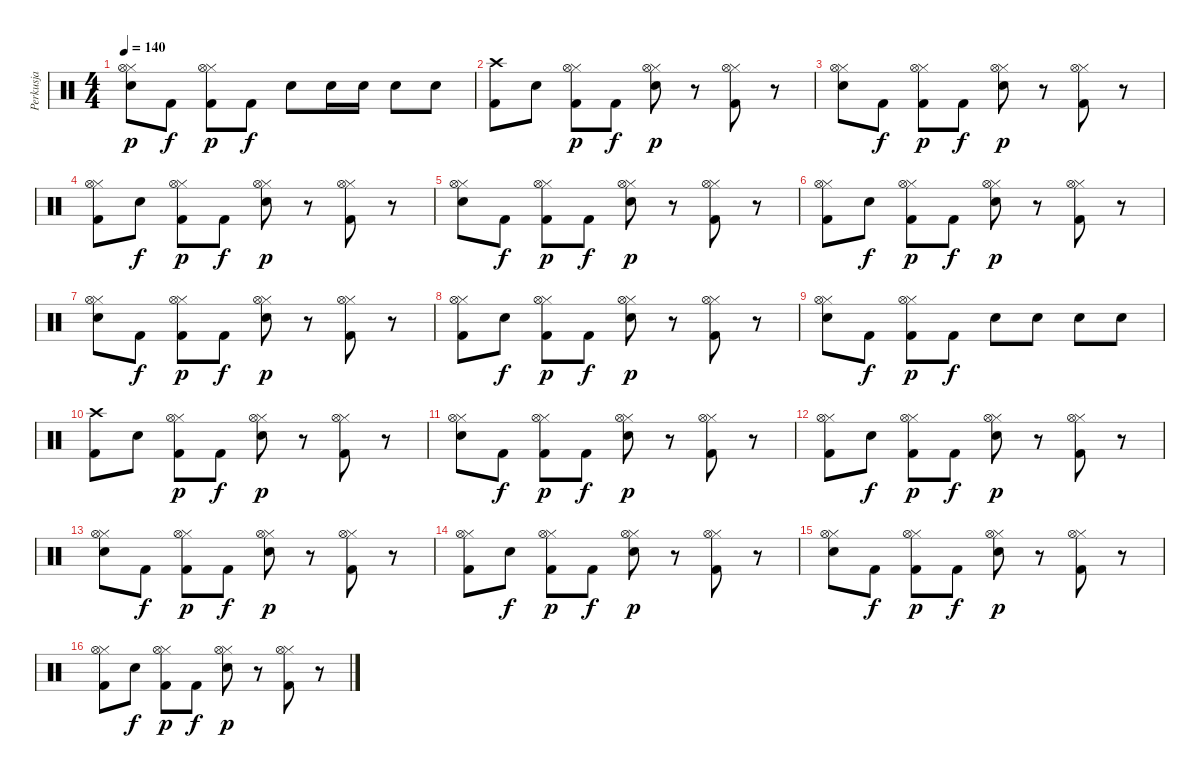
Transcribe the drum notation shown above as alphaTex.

\track ("Perkusja" "Perkusja") {instrument percussion}
\staff {score}
\articulation defaults
\ts (4 4)
\tempo 140
\clef neutral
\ks c
("Electric Snare (hit)" "Hi-Hat (closed)" "Hi-Hat (open)").8{dy p} "Kick (hit) 2".8{dy f} ("Kick (hit) 2" "Hi-Hat (closed)" "Hi-Hat (open)").8{dy p} "Kick (hit) 2".8{dy f} "Electric Snare (hit)".8 "Electric Snare (hit)".16 "Electric Snare (hit)".16 "Electric Snare (hit)".8 "Electric Snare (hit)".8 |
("Kick (hit) 2" "Crash high (hit)").8 "Electric Snare (hit)".8 ("Kick (hit) 2" "Hi-Hat (closed)" "Hi-Hat (open)").8{dy p} "Kick (hit) 2".8{dy f} ("Electric Snare (hit)" "Hi-Hat (closed)" "Hi-Hat (open)").8{dy p} r.8 ("Kick (hit) 2" "Hi-Hat (closed)" "Hi-Hat (open)").8 r.8 |
("Electric Snare (hit)" "Hi-Hat (closed)" "Hi-Hat (open)").8 "Kick (hit) 2".8{dy f} ("Kick (hit) 2" "Hi-Hat (closed)" "Hi-Hat (open)").8{dy p} "Kick (hit) 2".8{dy f} ("Electric Snare (hit)" "Hi-Hat (closed)" "Hi-Hat (open)").8{dy p} r.8 ("Kick (hit) 2" "Hi-Hat (closed)" "Hi-Hat (open)").8 r.8 |
("Kick (hit) 2" "Hi-Hat (closed)" "Hi-Hat (open)").8 "Electric Snare (hit)".8{dy f} ("Kick (hit) 2" "Hi-Hat (closed)" "Hi-Hat (open)").8{dy p} "Kick (hit) 2".8{dy f} ("Electric Snare (hit)" "Hi-Hat (closed)" "Hi-Hat (open)").8{dy p} r.8 ("Kick (hit) 2" "Hi-Hat (closed)" "Hi-Hat (open)").8 r.8 |
("Electric Snare (hit)" "Hi-Hat (closed)" "Hi-Hat (open)").8 "Kick (hit) 2".8{dy f} ("Kick (hit) 2" "Hi-Hat (closed)" "Hi-Hat (open)").8{dy p} "Kick (hit) 2".8{dy f} ("Electric Snare (hit)" "Hi-Hat (closed)" "Hi-Hat (open)").8{dy p} r.8 ("Kick (hit) 2" "Hi-Hat (closed)" "Hi-Hat (open)").8 r.8 |
("Kick (hit) 2" "Hi-Hat (closed)" "Hi-Hat (open)").8 "Electric Snare (hit)".8{dy f} ("Kick (hit) 2" "Hi-Hat (closed)" "Hi-Hat (open)").8{dy p} "Kick (hit) 2".8{dy f} ("Electric Snare (hit)" "Hi-Hat (closed)" "Hi-Hat (open)").8{dy p} r.8 ("Kick (hit) 2" "Hi-Hat (closed)" "Hi-Hat (open)").8 r.8 |
("Electric Snare (hit)" "Hi-Hat (closed)" "Hi-Hat (open)").8 "Kick (hit) 2".8{dy f} ("Kick (hit) 2" "Hi-Hat (closed)" "Hi-Hat (open)").8{dy p} "Kick (hit) 2".8{dy f} ("Electric Snare (hit)" "Hi-Hat (closed)" "Hi-Hat (open)").8{dy p} r.8 ("Kick (hit) 2" "Hi-Hat (closed)" "Hi-Hat (open)").8 r.8 |
("Kick (hit) 2" "Hi-Hat (closed)" "Hi-Hat (open)").8 "Electric Snare (hit)".8{dy f} ("Kick (hit) 2" "Hi-Hat (closed)" "Hi-Hat (open)").8{dy p} "Kick (hit) 2".8{dy f} ("Electric Snare (hit)" "Hi-Hat (closed)" "Hi-Hat (open)").8{dy p} r.8 ("Kick (hit) 2" "Hi-Hat (closed)" "Hi-Hat (open)").8 r.8 |
("Electric Snare (hit)" "Hi-Hat (closed)" "Hi-Hat (open)").8 "Kick (hit) 2".8{dy f} ("Kick (hit) 2" "Hi-Hat (closed)" "Hi-Hat (open)").8{dy p} "Kick (hit) 2".8{dy f} "Electric Snare (hit)".8 "Electric Snare (hit)".8 "Electric Snare (hit)".8 "Electric Snare (hit)".8 |
("Kick (hit) 2" "Crash high (hit)").8 "Electric Snare (hit)".8 ("Kick (hit) 2" "Hi-Hat (closed)" "Hi-Hat (open)").8{dy p} "Kick (hit) 2".8{dy f} ("Electric Snare (hit)" "Hi-Hat (closed)" "Hi-Hat (open)").8{dy p} r.8 ("Kick (hit) 2" "Hi-Hat (closed)" "Hi-Hat (open)").8 r.8 |
("Electric Snare (hit)" "Hi-Hat (closed)" "Hi-Hat (open)").8 "Kick (hit) 2".8{dy f} ("Kick (hit) 2" "Hi-Hat (closed)" "Hi-Hat (open)").8{dy p} "Kick (hit) 2".8{dy f} ("Electric Snare (hit)" "Hi-Hat (closed)" "Hi-Hat (open)").8{dy p} r.8 ("Kick (hit) 2" "Hi-Hat (closed)" "Hi-Hat (open)").8 r.8 |
("Kick (hit) 2" "Hi-Hat (closed)" "Hi-Hat (open)").8 "Electric Snare (hit)".8{dy f} ("Kick (hit) 2" "Hi-Hat (closed)" "Hi-Hat (open)").8{dy p} "Kick (hit) 2".8{dy f} ("Electric Snare (hit)" "Hi-Hat (closed)" "Hi-Hat (open)").8{dy p} r.8 ("Kick (hit) 2" "Hi-Hat (closed)" "Hi-Hat (open)").8 r.8 |
("Electric Snare (hit)" "Hi-Hat (closed)" "Hi-Hat (open)").8 "Kick (hit) 2".8{dy f} ("Kick (hit) 2" "Hi-Hat (closed)" "Hi-Hat (open)").8{dy p} "Kick (hit) 2".8{dy f} ("Electric Snare (hit)" "Hi-Hat (closed)" "Hi-Hat (open)").8{dy p} r.8 ("Kick (hit) 2" "Hi-Hat (closed)" "Hi-Hat (open)").8 r.8 |
("Kick (hit) 2" "Hi-Hat (closed)" "Hi-Hat (open)").8 "Electric Snare (hit)".8{dy f} ("Kick (hit) 2" "Hi-Hat (closed)" "Hi-Hat (open)").8{dy p} "Kick (hit) 2".8{dy f} ("Electric Snare (hit)" "Hi-Hat (closed)" "Hi-Hat (open)").8{dy p} r.8 ("Kick (hit) 2" "Hi-Hat (closed)" "Hi-Hat (open)").8 r.8 |
("Electric Snare (hit)" "Hi-Hat (closed)" "Hi-Hat (open)").8 "Kick (hit) 2".8{dy f} ("Kick (hit) 2" "Hi-Hat (closed)" "Hi-Hat (open)").8{dy p} "Kick (hit) 2".8{dy f} ("Electric Snare (hit)" "Hi-Hat (closed)" "Hi-Hat (open)").8{dy p} r.8 ("Kick (hit) 2" "Hi-Hat (closed)" "Hi-Hat (open)").8 r.8 |
("Kick (hit) 2" "Hi-Hat (closed)" "Hi-Hat (open)").8 "Electric Snare (hit)".8{dy f} ("Kick (hit) 2" "Hi-Hat (closed)" "Hi-Hat (open)").8{dy p} "Kick (hit) 2".8{dy f} ("Electric Snare (hit)" "Hi-Hat (closed)" "Hi-Hat (open)").8{dy p} r.8 ("Kick (hit) 2" "Hi-Hat (closed)" "Hi-Hat (open)").8 r.8
